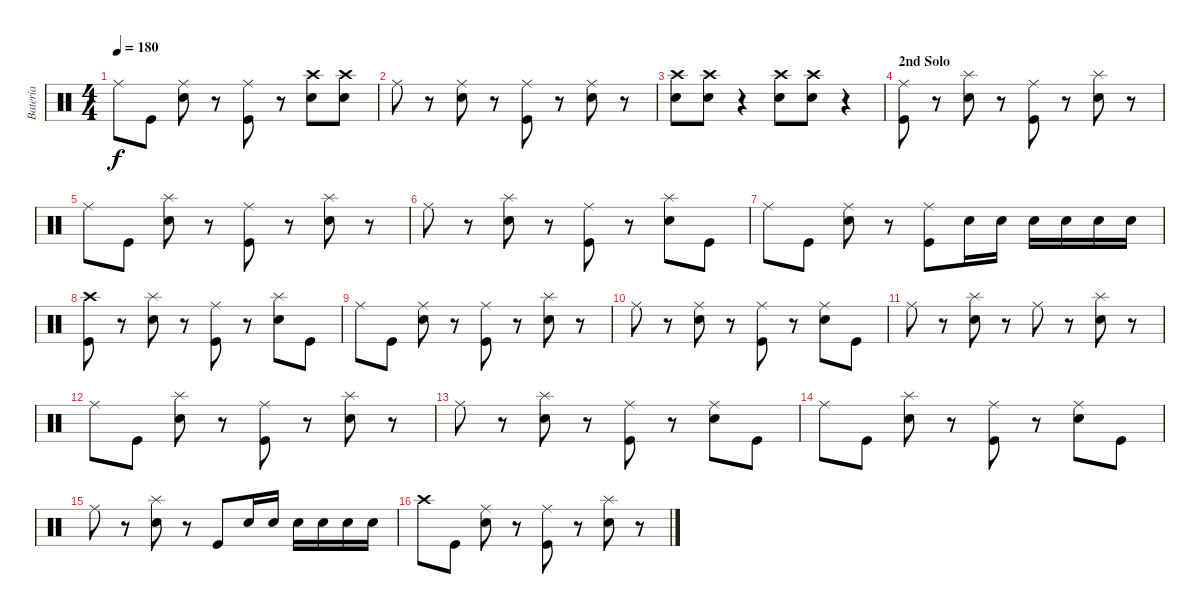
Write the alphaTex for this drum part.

\track ("Batería" "Batería") {instrument percussion}
\staff {score}
\articulation defaults
\ts (4 4)
\tempo 180
\clef neutral
\ks c "Ride (middle)".8{dy f} "Kick (hit)".8
("Electric Snare (hit)" "Ride (middle)").8 r.8 ("Kick (hit)" "Ride (middle)").8 r.8 ("Electric Snare (hit)" "Crash high (hit)").8 ("Electric Snare (hit)" "Crash high (hit)").8 |
"Ride (middle)".8 r.8 ("Electric Snare (hit)" "Ride (middle)").8 r.8 ("Kick (hit)" "Ride (middle)").8 r.8 ("Electric Snare (hit)" "Ride (middle)").8 r.8 |
("Crash high (hit)" "Electric Snare (hit)").8 ("Crash high (hit)" "Electric Snare (hit)").8 r.4 ("Crash high (hit)" "Electric Snare (hit)").8 ("Crash high (hit)" "Electric Snare (hit)").8 r.4 |
\section ("" "2nd Solo")
("Ride (middle)" "Kick (hit)").8 r.8 ("Electric Snare (hit)" "Splash (hit)").8 r.8 ("Ride (middle)" "Kick (hit)").8 r.8 ("Electric Snare (hit)" "Splash (hit)").8 r.8 |
"Ride (middle)".8 "Kick (hit)".8 ("Electric Snare (hit)" "Splash (hit)").8 r.8 ("Kick (hit)" "Ride (middle)").8 r.8 ("Electric Snare (hit)" "Splash (hit)").8 r.8 |
"Ride (middle)".8 r.8 ("Electric Snare (hit)" "Splash (hit)").8 r.8 ("Kick (hit)" "Ride (middle)").8 r.8 ("Electric Snare (hit)" "Splash (hit)").8 "Kick (hit)".8 |
"Ride (middle)".8 "Kick (hit)".8 ("Electric Snare (hit)" "Ride (middle)").8 r.8 ("Kick (hit)" "Ride (middle)").8 "Electric Snare (hit)".16 "Electric Snare (hit)".16 "Electric Snare (hit)".16 "Electric Snare (hit)".16 "Electric Snare (hit)".16 "Electric Snare (hit)".16 |
("Crash high (hit)" "Kick (hit)").8 r.8 ("Electric Snare (hit)" "Splash (hit)").8 r.8 ("Ride (middle)" "Kick (hit)").8 r.8 ("Electric Snare (hit)" "Splash (hit)").8 "Kick (hit)".8 |
"Ride (middle)".8 "Kick (hit)".8 ("Electric Snare (hit)" "Ride (middle)").8 r.8 ("Kick (hit)" "Ride (middle)").8 r.8 ("Electric Snare (hit)" "Splash (hit)").8 r.8 |
"Ride (middle)".8 r.8 ("Electric Snare (hit)" "Ride (middle)").8 r.8 ("Kick (hit)" "Ride (middle)").8 r.8 ("Electric Snare (hit)" "Ride (middle)").8 "Kick (hit)".8 |
"Ride (middle)".8 r.8 ("Electric Snare (hit)" "Splash (hit)").8 r.8 "Ride (middle)".8 r.8 ("Electric Snare (hit)" "Splash (hit)").8 r.8 |
"Ride (middle)".8 "Kick (hit)".8 ("Electric Snare (hit)" "Splash (hit)").8 r.8 ("Kick (hit)" "Ride (middle)").8 r.8 ("Electric Snare (hit)" "Splash (hit)").8 r.8 |
"Ride (middle)".8 r.8 ("Electric Snare (hit)" "Splash (hit)").8 r.8 ("Kick (hit)" "Ride (middle)").8 r.8 ("Electric Snare (hit)" "Ride (middle)").8 "Kick (hit)".8 |
"Ride (middle)".8 "Kick (hit)".8 ("Electric Snare (hit)" "Splash (hit)").8 r.8 ("Kick (hit)" "Ride (middle)").8 r.8 ("Electric Snare (hit)" "Ride (middle)").8 "Kick (hit)".8 |
"Ride (middle)".8 r.8 ("Electric Snare (hit)" "Splash (hit)").8 r.8 "Kick (hit)".8 "Electric Snare (hit)".16 "Electric Snare (hit)".16 "Electric Snare (hit)".16 "Electric Snare (hit)".16 "Electric Snare (hit)".16 "Electric Snare (hit)".16 |
"Crash high (hit)".8 "Kick (hit)".8 ("Electric Snare (hit)" "Ride (middle)").8 r.8 ("Kick (hit)" "Ride (middle)").8 r.8 ("Electric Snare (hit)" "Splash (hit)").8 r.8
